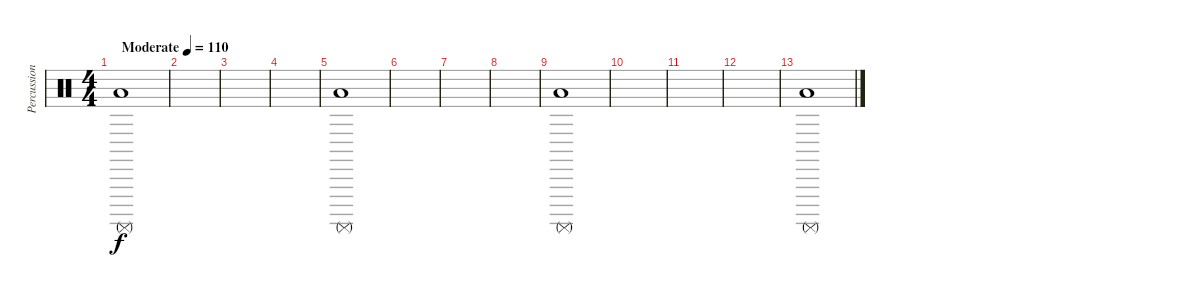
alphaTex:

\track ("Percussions" "Percussion") {instrument percussion}
\staff {score}
\articulation defaults
\ts (4 4)
\tempo (110 "Moderate")
\clef neutral
\ks c
("Surdo (mute)" "Low Floor Tom (hit)").1{dy f} |
|
|
|
("Surdo (mute)" "Low Floor Tom (hit)").1 |
|
|
|
("Surdo (mute)" "Low Floor Tom (hit)").1 |
|
|
|
("Surdo (mute)" "Low Floor Tom (hit)").1
